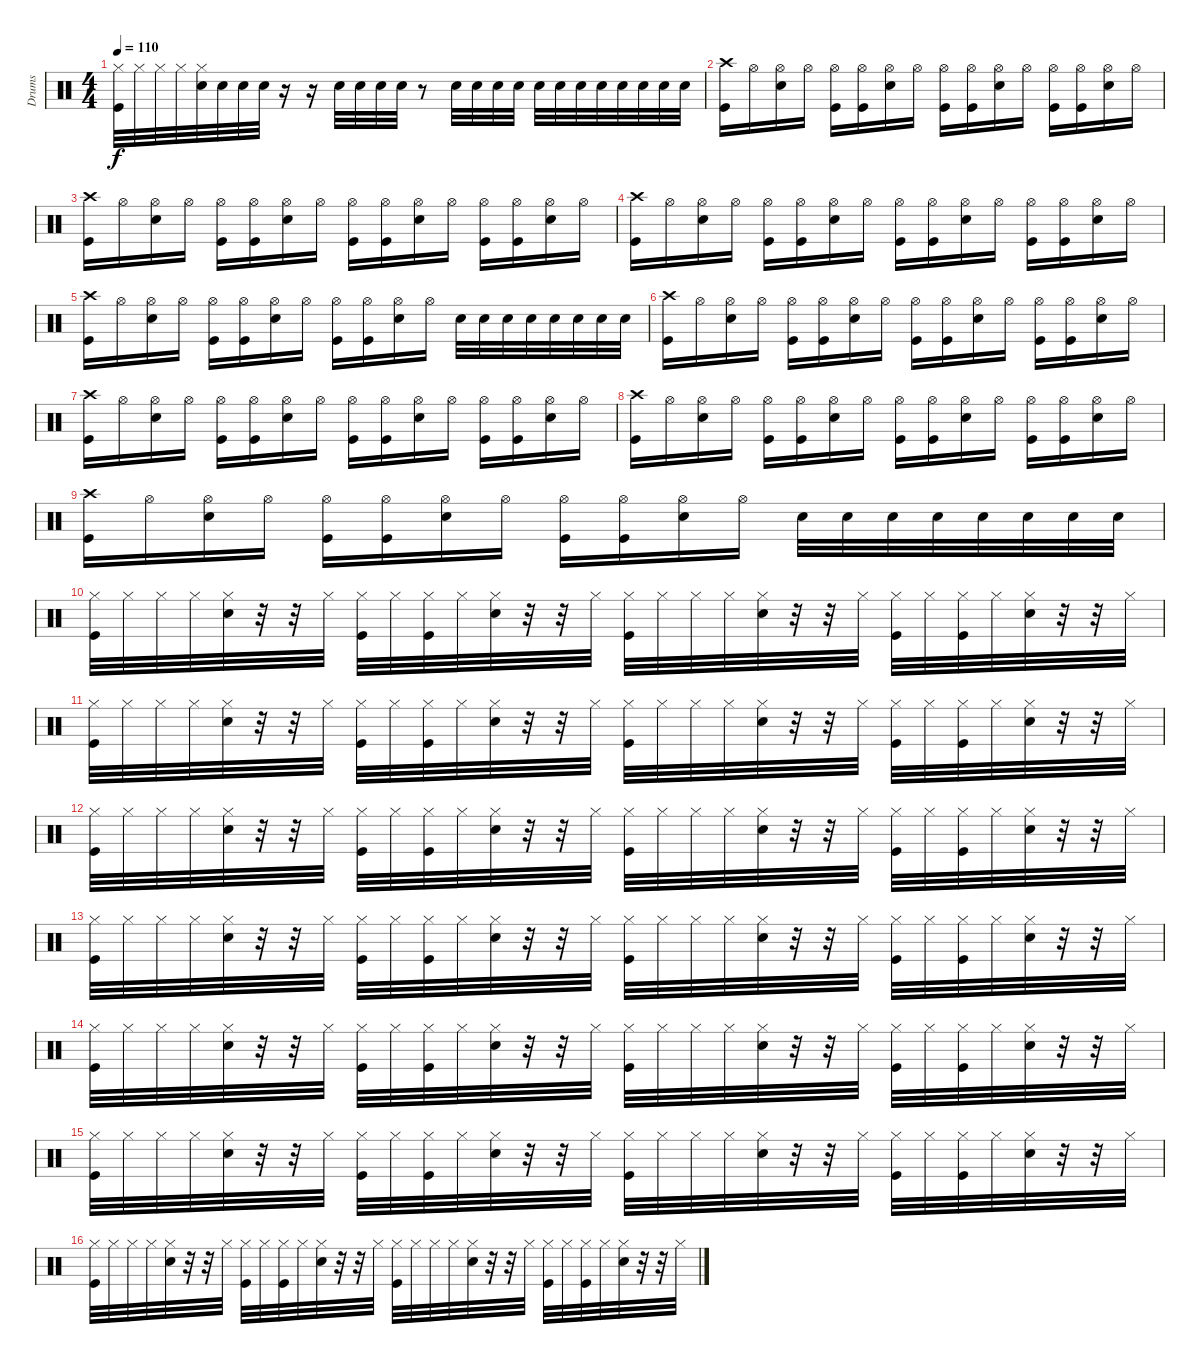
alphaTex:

\track ("Drums" "Drums") {instrument percussion}
\staff {score}
\articulation defaults
\ts (4 4)
\tempo 110
\clef neutral
\ks c
("Hi-Hat (closed)" "Kick (hit)").32{dy f} "Hi-Hat (closed)".32 "Hi-Hat (closed)".32 "Hi-Hat (closed)".32 ("Hi-Hat (closed)" "Snare (hit) 2").32 "Snare (hit) 2".32 "Snare (hit) 2".32 "Snare (hit) 2".32 r.16 r.16 "Snare (hit) 2".32 "Snare (hit) 2".32 "Snare (hit) 2".32 "Snare (hit) 2".32 r.8 "Snare (hit) 2".32 "Snare (hit) 2".32 "Snare (hit) 2".32 "Snare (hit) 2".32 "Snare (hit) 2".32 "Snare (hit) 2".32 "Snare (hit) 2".32 "Snare (hit) 2".32 "Snare (hit) 2".32 "Snare (hit) 2".32 "Snare (hit) 2".32 "Snare (hit) 2".32 |
("Crash high (hit)" "Kick (hit)").16 "Hi-Hat (open)".16 ("Hi-Hat (open)" "Snare (hit) 2").16 "Hi-Hat (open)".16 ("Hi-Hat (open)" "Kick (hit)").16 ("Hi-Hat (open)" "Kick (hit)").16 ("Hi-Hat (open)" "Snare (hit) 2").16 "Hi-Hat (open)".16 ("Hi-Hat (open)" "Kick (hit)").16 ("Hi-Hat (open)" "Kick (hit)").16 ("Hi-Hat (open)" "Snare (hit) 2").16 "Hi-Hat (open)".16 ("Hi-Hat (open)" "Kick (hit)").16 ("Hi-Hat (open)" "Kick (hit)").16 ("Hi-Hat (open)" "Snare (hit) 2").16 "Hi-Hat (open)".16 |
("Crash high (hit)" "Kick (hit)").16 "Hi-Hat (open)".16 ("Hi-Hat (open)" "Snare (hit) 2").16 "Hi-Hat (open)".16 ("Hi-Hat (open)" "Kick (hit)").16 ("Hi-Hat (open)" "Kick (hit)").16 ("Hi-Hat (open)" "Snare (hit) 2").16 "Hi-Hat (open)".16 ("Hi-Hat (open)" "Kick (hit)").16 ("Hi-Hat (open)" "Kick (hit)").16 ("Hi-Hat (open)" "Snare (hit) 2").16 "Hi-Hat (open)".16 ("Hi-Hat (open)" "Kick (hit)").16 ("Hi-Hat (open)" "Kick (hit)").16 ("Hi-Hat (open)" "Snare (hit) 2").16 "Hi-Hat (open)".16 |
("Crash high (hit)" "Kick (hit)").16 "Hi-Hat (open)".16 ("Hi-Hat (open)" "Snare (hit) 2").16 "Hi-Hat (open)".16 ("Hi-Hat (open)" "Kick (hit)").16 ("Hi-Hat (open)" "Kick (hit)").16 ("Hi-Hat (open)" "Snare (hit) 2").16 "Hi-Hat (open)".16 ("Hi-Hat (open)" "Kick (hit)").16 ("Hi-Hat (open)" "Kick (hit)").16 ("Hi-Hat (open)" "Snare (hit) 2").16 "Hi-Hat (open)".16 ("Hi-Hat (open)" "Kick (hit)").16 ("Hi-Hat (open)" "Kick (hit)").16 ("Hi-Hat (open)" "Snare (hit) 2").16 "Hi-Hat (open)".16 |
("Crash high (hit)" "Kick (hit)").16 "Hi-Hat (open)".16 ("Hi-Hat (open)" "Snare (hit) 2").16 "Hi-Hat (open)".16 ("Hi-Hat (open)" "Kick (hit)").16 ("Hi-Hat (open)" "Kick (hit)").16 ("Hi-Hat (open)" "Snare (hit) 2").16 "Hi-Hat (open)".16 ("Hi-Hat (open)" "Kick (hit)").16 ("Hi-Hat (open)" "Kick (hit)").16 ("Hi-Hat (open)" "Snare (hit) 2").16 "Hi-Hat (open)".16 "Snare (hit) 2".32 "Snare (hit) 2".32 "Snare (hit) 2".32 "Snare (hit) 2".32 "Snare (hit) 2".32 "Snare (hit) 2".32 "Snare (hit) 2".32 "Snare (hit) 2".32 |
("Crash high (hit)" "Kick (hit)").16 "Hi-Hat (open)".16 ("Hi-Hat (open)" "Snare (hit) 2").16 "Hi-Hat (open)".16 ("Hi-Hat (open)" "Kick (hit)").16 ("Hi-Hat (open)" "Kick (hit)").16 ("Hi-Hat (open)" "Snare (hit) 2").16 "Hi-Hat (open)".16 ("Hi-Hat (open)" "Kick (hit)").16 ("Hi-Hat (open)" "Kick (hit)").16 ("Hi-Hat (open)" "Snare (hit) 2").16 "Hi-Hat (open)".16 ("Hi-Hat (open)" "Kick (hit)").16 ("Hi-Hat (open)" "Kick (hit)").16 ("Hi-Hat (open)" "Snare (hit) 2").16 "Hi-Hat (open)".16 |
("Crash high (hit)" "Kick (hit)").16 "Hi-Hat (open)".16 ("Hi-Hat (open)" "Snare (hit) 2").16 "Hi-Hat (open)".16 ("Hi-Hat (open)" "Kick (hit)").16 ("Hi-Hat (open)" "Kick (hit)").16 ("Hi-Hat (open)" "Snare (hit) 2").16 "Hi-Hat (open)".16 ("Hi-Hat (open)" "Kick (hit)").16 ("Hi-Hat (open)" "Kick (hit)").16 ("Hi-Hat (open)" "Snare (hit) 2").16 "Hi-Hat (open)".16 ("Hi-Hat (open)" "Kick (hit)").16 ("Hi-Hat (open)" "Kick (hit)").16 ("Hi-Hat (open)" "Snare (hit) 2").16 "Hi-Hat (open)".16 |
("Crash high (hit)" "Kick (hit)").16 "Hi-Hat (open)".16 ("Hi-Hat (open)" "Snare (hit) 2").16 "Hi-Hat (open)".16 ("Hi-Hat (open)" "Kick (hit)").16 ("Hi-Hat (open)" "Kick (hit)").16 ("Hi-Hat (open)" "Snare (hit) 2").16 "Hi-Hat (open)".16 ("Hi-Hat (open)" "Kick (hit)").16 ("Hi-Hat (open)" "Kick (hit)").16 ("Hi-Hat (open)" "Snare (hit) 2").16 "Hi-Hat (open)".16 ("Hi-Hat (open)" "Kick (hit)").16 ("Hi-Hat (open)" "Kick (hit)").16 ("Hi-Hat (open)" "Snare (hit) 2").16 "Hi-Hat (open)".16 |
("Crash high (hit)" "Kick (hit)").16 "Hi-Hat (open)".16 ("Hi-Hat (open)" "Snare (hit) 2").16 "Hi-Hat (open)".16 ("Hi-Hat (open)" "Kick (hit)").16 ("Hi-Hat (open)" "Kick (hit)").16 ("Hi-Hat (open)" "Snare (hit) 2").16 "Hi-Hat (open)".16 ("Hi-Hat (open)" "Kick (hit)").16 ("Hi-Hat (open)" "Kick (hit)").16 ("Hi-Hat (open)" "Snare (hit) 2").16 "Hi-Hat (open)".16 "Snare (hit) 2".32 "Snare (hit) 2".32 "Snare (hit) 2".32 "Snare (hit) 2".32 "Snare (hit) 2".32 "Snare (hit) 2".32 "Snare (hit) 2".32 "Snare (hit) 2".32 |
("Hi-Hat (closed)" "Kick (hit)").32 "Hi-Hat (closed)".32 "Hi-Hat (closed)".32 "Hi-Hat (closed)".32 ("Hi-Hat (closed)" "Snare (hit) 2").32 r.32 r.32 "Hi-Hat (closed)".32 ("Hi-Hat (closed)" "Kick (hit)").32 "Hi-Hat (closed)".32 ("Hi-Hat (closed)" "Kick (hit)").32 "Hi-Hat (closed)".32 ("Hi-Hat (closed)" "Snare (hit) 2").32 r.32 r.32 "Hi-Hat (closed)".32 ("Hi-Hat (closed)" "Kick (hit)").32 "Hi-Hat (closed)".32 "Hi-Hat (closed)".32 "Hi-Hat (closed)".32 ("Hi-Hat (closed)" "Snare (hit) 2").32 r.32 r.32 "Hi-Hat (closed)".32 ("Hi-Hat (closed)" "Kick (hit)").32 "Hi-Hat (closed)".32 ("Hi-Hat (closed)" "Kick (hit)").32 "Hi-Hat (closed)".32 ("Hi-Hat (closed)" "Snare (hit) 2").32 r.32 r.32 "Hi-Hat (closed)".32 |
("Hi-Hat (closed)" "Kick (hit)").32 "Hi-Hat (closed)".32 "Hi-Hat (closed)".32 "Hi-Hat (closed)".32 ("Hi-Hat (closed)" "Snare (hit) 2").32 r.32 r.32 "Hi-Hat (closed)".32 ("Hi-Hat (closed)" "Kick (hit)").32 "Hi-Hat (closed)".32 ("Hi-Hat (closed)" "Kick (hit)").32 "Hi-Hat (closed)".32 ("Hi-Hat (closed)" "Snare (hit) 2").32 r.32 r.32 "Hi-Hat (closed)".32 ("Hi-Hat (closed)" "Kick (hit)").32 "Hi-Hat (closed)".32 "Hi-Hat (closed)".32 "Hi-Hat (closed)".32 ("Hi-Hat (closed)" "Snare (hit) 2").32 r.32 r.32 "Hi-Hat (closed)".32 ("Hi-Hat (closed)" "Kick (hit)").32 "Hi-Hat (closed)".32 ("Hi-Hat (closed)" "Kick (hit)").32 "Hi-Hat (closed)".32 ("Hi-Hat (closed)" "Snare (hit) 2").32 r.32 r.32 "Hi-Hat (closed)".32 |
("Hi-Hat (closed)" "Kick (hit)").32 "Hi-Hat (closed)".32 "Hi-Hat (closed)".32 "Hi-Hat (closed)".32 ("Hi-Hat (closed)" "Snare (hit) 2").32 r.32 r.32 "Hi-Hat (closed)".32 ("Hi-Hat (closed)" "Kick (hit)").32 "Hi-Hat (closed)".32 ("Hi-Hat (closed)" "Kick (hit)").32 "Hi-Hat (closed)".32 ("Hi-Hat (closed)" "Snare (hit) 2").32 r.32 r.32 "Hi-Hat (closed)".32 ("Hi-Hat (closed)" "Kick (hit)").32 "Hi-Hat (closed)".32 "Hi-Hat (closed)".32 "Hi-Hat (closed)".32 ("Hi-Hat (closed)" "Snare (hit) 2").32 r.32 r.32 "Hi-Hat (closed)".32 ("Hi-Hat (closed)" "Kick (hit)").32 "Hi-Hat (closed)".32 ("Hi-Hat (closed)" "Kick (hit)").32 "Hi-Hat (closed)".32 ("Hi-Hat (closed)" "Snare (hit) 2").32 r.32 r.32 "Hi-Hat (closed)".32 |
("Hi-Hat (closed)" "Kick (hit)").32 "Hi-Hat (closed)".32 "Hi-Hat (closed)".32 "Hi-Hat (closed)".32 ("Hi-Hat (closed)" "Snare (hit) 2").32 r.32 r.32 "Hi-Hat (closed)".32 ("Hi-Hat (closed)" "Kick (hit)").32 "Hi-Hat (closed)".32 ("Hi-Hat (closed)" "Kick (hit)").32 "Hi-Hat (closed)".32 ("Hi-Hat (closed)" "Snare (hit) 2").32 r.32 r.32 "Hi-Hat (closed)".32 ("Hi-Hat (closed)" "Kick (hit)").32 "Hi-Hat (closed)".32 "Hi-Hat (closed)".32 "Hi-Hat (closed)".32 ("Hi-Hat (closed)" "Snare (hit) 2").32 r.32 r.32 "Hi-Hat (closed)".32 ("Hi-Hat (closed)" "Kick (hit)").32 "Hi-Hat (closed)".32 ("Hi-Hat (closed)" "Kick (hit)").32 "Hi-Hat (closed)".32 ("Hi-Hat (closed)" "Snare (hit) 2").32 r.32 r.32 "Hi-Hat (closed)".32 |
("Hi-Hat (closed)" "Kick (hit)").32 "Hi-Hat (closed)".32 "Hi-Hat (closed)".32 "Hi-Hat (closed)".32 ("Hi-Hat (closed)" "Snare (hit) 2").32 r.32 r.32 "Hi-Hat (closed)".32 ("Hi-Hat (closed)" "Kick (hit)").32 "Hi-Hat (closed)".32 ("Hi-Hat (closed)" "Kick (hit)").32 "Hi-Hat (closed)".32 ("Hi-Hat (closed)" "Snare (hit) 2").32 r.32 r.32 "Hi-Hat (closed)".32 ("Hi-Hat (closed)" "Kick (hit)").32 "Hi-Hat (closed)".32 "Hi-Hat (closed)".32 "Hi-Hat (closed)".32 ("Hi-Hat (closed)" "Snare (hit) 2").32 r.32 r.32 "Hi-Hat (closed)".32 ("Hi-Hat (closed)" "Kick (hit)").32 "Hi-Hat (closed)".32 ("Hi-Hat (closed)" "Kick (hit)").32 "Hi-Hat (closed)".32 ("Hi-Hat (closed)" "Snare (hit) 2").32 r.32 r.32 "Hi-Hat (closed)".32 |
("Hi-Hat (closed)" "Kick (hit)").32 "Hi-Hat (closed)".32 "Hi-Hat (closed)".32 "Hi-Hat (closed)".32 ("Hi-Hat (closed)" "Snare (hit) 2").32 r.32 r.32 "Hi-Hat (closed)".32 ("Hi-Hat (closed)" "Kick (hit)").32 "Hi-Hat (closed)".32 ("Hi-Hat (closed)" "Kick (hit)").32 "Hi-Hat (closed)".32 ("Hi-Hat (closed)" "Snare (hit) 2").32 r.32 r.32 "Hi-Hat (closed)".32 ("Hi-Hat (closed)" "Kick (hit)").32 "Hi-Hat (closed)".32 "Hi-Hat (closed)".32 "Hi-Hat (closed)".32 ("Hi-Hat (closed)" "Snare (hit) 2").32 r.32 r.32 "Hi-Hat (closed)".32 ("Hi-Hat (closed)" "Kick (hit)").32 "Hi-Hat (closed)".32 ("Hi-Hat (closed)" "Kick (hit)").32 "Hi-Hat (closed)".32 ("Hi-Hat (closed)" "Snare (hit) 2").32 r.32 r.32 "Hi-Hat (closed)".32 |
("Hi-Hat (closed)" "Kick (hit)").32 "Hi-Hat (closed)".32 "Hi-Hat (closed)".32 "Hi-Hat (closed)".32 ("Hi-Hat (closed)" "Snare (hit) 2").32 r.32 r.32 "Hi-Hat (closed)".32 ("Hi-Hat (closed)" "Kick (hit)").32 "Hi-Hat (closed)".32 ("Hi-Hat (closed)" "Kick (hit)").32 "Hi-Hat (closed)".32 ("Hi-Hat (closed)" "Snare (hit) 2").32 r.32 r.32 "Hi-Hat (closed)".32 ("Hi-Hat (closed)" "Kick (hit)").32 "Hi-Hat (closed)".32 "Hi-Hat (closed)".32 "Hi-Hat (closed)".32 ("Hi-Hat (closed)" "Snare (hit) 2").32 r.32 r.32 "Hi-Hat (closed)".32 ("Hi-Hat (closed)" "Kick (hit)").32 "Hi-Hat (closed)".32 ("Hi-Hat (closed)" "Kick (hit)").32 "Hi-Hat (closed)".32 ("Hi-Hat (closed)" "Snare (hit) 2").32 r.32 r.32 "Hi-Hat (closed)".32
